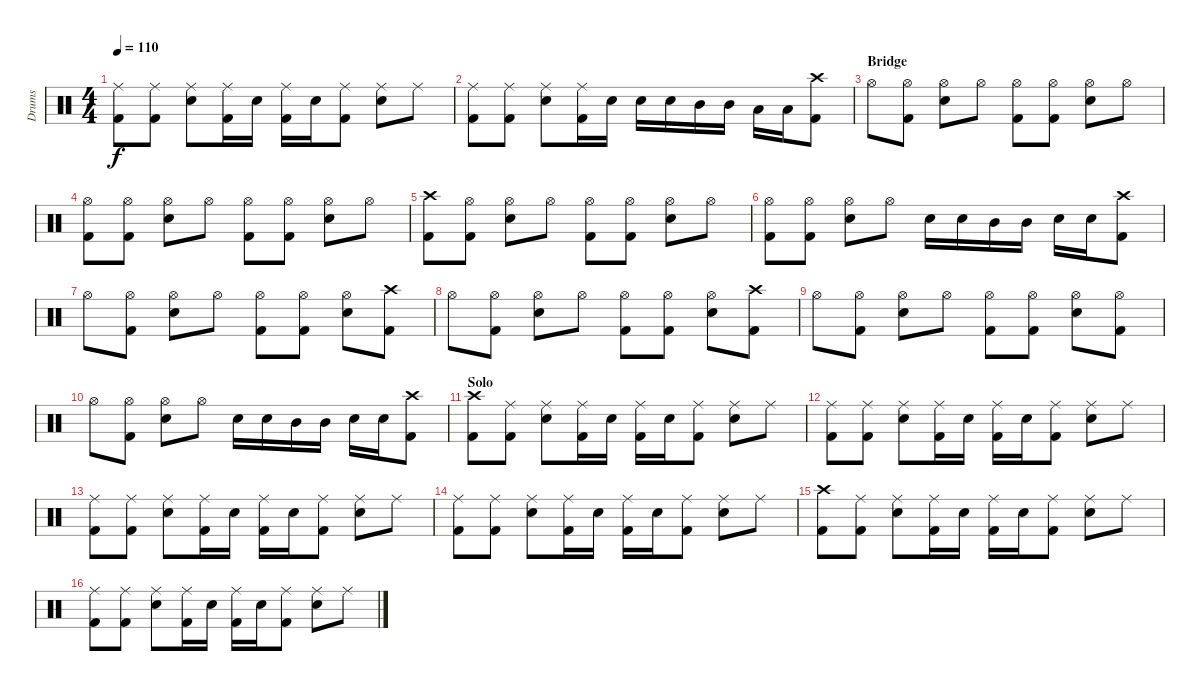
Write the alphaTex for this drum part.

\track ("Drums" "Drums") {instrument percussion}
\staff {score}
\articulation defaults
\ts (4 4)
\tempo 110
\clef neutral
\ks c
("Ride (middle)" "Kick (hit) 2").8{dy f} ("Ride (middle)" "Kick (hit) 2").8 ("Ride (middle)" "Electric Snare (hit)").8 ("Ride (middle)" "Kick (hit) 2").16 "Electric Snare (hit)".16 ("Ride (middle)" "Kick (hit) 2").16 "Electric Snare (hit)".16 ("Ride (middle)" "Kick (hit) 2").8 ("Ride (middle)" "Electric Snare (hit)").8 "Ride (middle)".8 |
("Ride (middle)" "Kick (hit) 2").8 ("Ride (middle)" "Kick (hit) 2").8 ("Ride (middle)" "Electric Snare (hit)").8 ("Ride (middle)" "Kick (hit) 2").16 "Electric Snare (hit)".16 "Electric Snare (hit)".16 "Electric Snare (hit)".16 "Mid Tom (hit)".16 "Mid Tom (hit)".16 "Low Tom (hit)".16 "Low Tom (hit)".16 ("Crash high (hit)" "Kick (hit) 2").8 |
\section ("" "Bridge")
"Hi-Hat (open)".8 ("Hi-Hat (open)" "Kick (hit) 2").8 ("Hi-Hat (open)" "Electric Snare (hit)").8 "Hi-Hat (open)".8 ("Hi-Hat (open)" "Kick (hit) 2").8 ("Hi-Hat (open)" "Kick (hit) 2").8 ("Hi-Hat (open)" "Electric Snare (hit)").8 "Hi-Hat (open)".8 |
("Hi-Hat (open)" "Kick (hit) 2").8 ("Hi-Hat (open)" "Kick (hit) 2").8 ("Hi-Hat (open)" "Electric Snare (hit)").8 "Hi-Hat (open)".8 ("Hi-Hat (open)" "Kick (hit) 2").8 ("Hi-Hat (open)" "Kick (hit) 2").8 ("Hi-Hat (open)" "Electric Snare (hit)").8 "Hi-Hat (open)".8 |
("Crash high (hit)" "Kick (hit) 2").8 ("Hi-Hat (open)" "Kick (hit) 2").8 ("Hi-Hat (open)" "Electric Snare (hit)").8 "Hi-Hat (open)".8 ("Hi-Hat (open)" "Kick (hit) 2").8 ("Hi-Hat (open)" "Kick (hit) 2").8 ("Hi-Hat (open)" "Electric Snare (hit)").8 "Hi-Hat (open)".8 |
("Hi-Hat (open)" "Kick (hit) 2").8 ("Hi-Hat (open)" "Kick (hit) 2").8 ("Hi-Hat (open)" "Electric Snare (hit)").8 "Hi-Hat (open)".8 "Electric Snare (hit)".16 "Electric Snare (hit)".16 "Mid Tom (hit)".16 "Mid Tom (hit)".16 "Electric Snare (hit)".16 "Electric Snare (hit)".16 ("Crash high (hit)" "Kick (hit) 2").8 |
"Hi-Hat (open)".8 ("Hi-Hat (open)" "Kick (hit) 2").8 ("Hi-Hat (open)" "Electric Snare (hit)").8 "Hi-Hat (open)".8 ("Hi-Hat (open)" "Kick (hit) 2").8 ("Hi-Hat (open)" "Kick (hit) 2").8 ("Hi-Hat (open)" "Electric Snare (hit)").8 ("Crash high (hit)" "Kick (hit) 2").8 |
"Hi-Hat (open)".8 ("Hi-Hat (open)" "Kick (hit) 2").8 ("Hi-Hat (open)" "Electric Snare (hit)").8 "Hi-Hat (open)".8 ("Hi-Hat (open)" "Kick (hit) 2").8 ("Hi-Hat (open)" "Kick (hit) 2").8 ("Hi-Hat (open)" "Electric Snare (hit)").8 ("Crash high (hit)" "Kick (hit) 2").8 |
"Hi-Hat (open)".8 ("Hi-Hat (open)" "Kick (hit) 2").8 ("Hi-Hat (open)" "Electric Snare (hit)").8 "Hi-Hat (open)".8 ("Hi-Hat (open)" "Kick (hit) 2").8 ("Hi-Hat (open)" "Kick (hit) 2").8 ("Hi-Hat (open)" "Electric Snare (hit)").8 ("Hi-Hat (open)" "Kick (hit) 2").8 |
"Hi-Hat (open)".8 ("Hi-Hat (open)" "Kick (hit) 2").8 ("Hi-Hat (open)" "Electric Snare (hit)").8 "Hi-Hat (open)".8 "Electric Snare (hit)".16 "Electric Snare (hit)".16 "Mid Tom (hit)".16 "Mid Tom (hit)".16 "Electric Snare (hit)".16 "Electric Snare (hit)".16 ("Crash high (hit)" "Kick (hit) 2").8 |
\section ("" "Solo")
("Crash high (hit)" "Kick (hit) 2").8 ("Ride (middle)" "Kick (hit) 2").8 ("Ride (middle)" "Electric Snare (hit)").8 ("Ride (middle)" "Kick (hit) 2").16 "Electric Snare (hit)".16 ("Ride (middle)" "Kick (hit) 2").16 "Electric Snare (hit)".16 ("Ride (middle)" "Kick (hit) 2").8 ("Ride (middle)" "Electric Snare (hit)").8 "Ride (middle)".8 |
("Ride (middle)" "Kick (hit) 2").8 ("Ride (middle)" "Kick (hit) 2").8 ("Ride (middle)" "Electric Snare (hit)").8 ("Ride (middle)" "Kick (hit) 2").16 "Electric Snare (hit)".16 ("Ride (middle)" "Kick (hit) 2").16 "Electric Snare (hit)".16 ("Ride (middle)" "Kick (hit) 2").8 ("Ride (middle)" "Electric Snare (hit)").8 "Ride (middle)".8 |
("Ride (middle)" "Kick (hit) 2").8 ("Ride (middle)" "Kick (hit) 2").8 ("Ride (middle)" "Electric Snare (hit)").8 ("Ride (middle)" "Kick (hit) 2").16 "Electric Snare (hit)".16 ("Ride (middle)" "Kick (hit) 2").16 "Electric Snare (hit)".16 ("Ride (middle)" "Kick (hit) 2").8 ("Ride (middle)" "Electric Snare (hit)").8 "Ride (middle)".8 |
("Ride (middle)" "Kick (hit) 2").8 ("Ride (middle)" "Kick (hit) 2").8 ("Ride (middle)" "Electric Snare (hit)").8 ("Ride (middle)" "Kick (hit) 2").16 "Electric Snare (hit)".16 ("Ride (middle)" "Kick (hit) 2").16 "Electric Snare (hit)".16 ("Ride (middle)" "Kick (hit) 2").8 ("Ride (middle)" "Electric Snare (hit)").8 "Ride (middle)".8 |
("Crash high (hit)" "Kick (hit) 2").8 ("Ride (middle)" "Kick (hit) 2").8 ("Ride (middle)" "Electric Snare (hit)").8 ("Ride (middle)" "Kick (hit) 2").16 "Electric Snare (hit)".16 ("Ride (middle)" "Kick (hit) 2").16 "Electric Snare (hit)".16 ("Ride (middle)" "Kick (hit) 2").8 ("Ride (middle)" "Electric Snare (hit)").8 "Ride (middle)".8 |
("Ride (middle)" "Kick (hit) 2").8 ("Ride (middle)" "Kick (hit) 2").8 ("Ride (middle)" "Electric Snare (hit)").8 ("Ride (middle)" "Kick (hit) 2").16 "Electric Snare (hit)".16 ("Ride (middle)" "Kick (hit) 2").16 "Electric Snare (hit)".16 ("Ride (middle)" "Kick (hit) 2").8 ("Ride (middle)" "Electric Snare (hit)").8 "Ride (middle)".8
